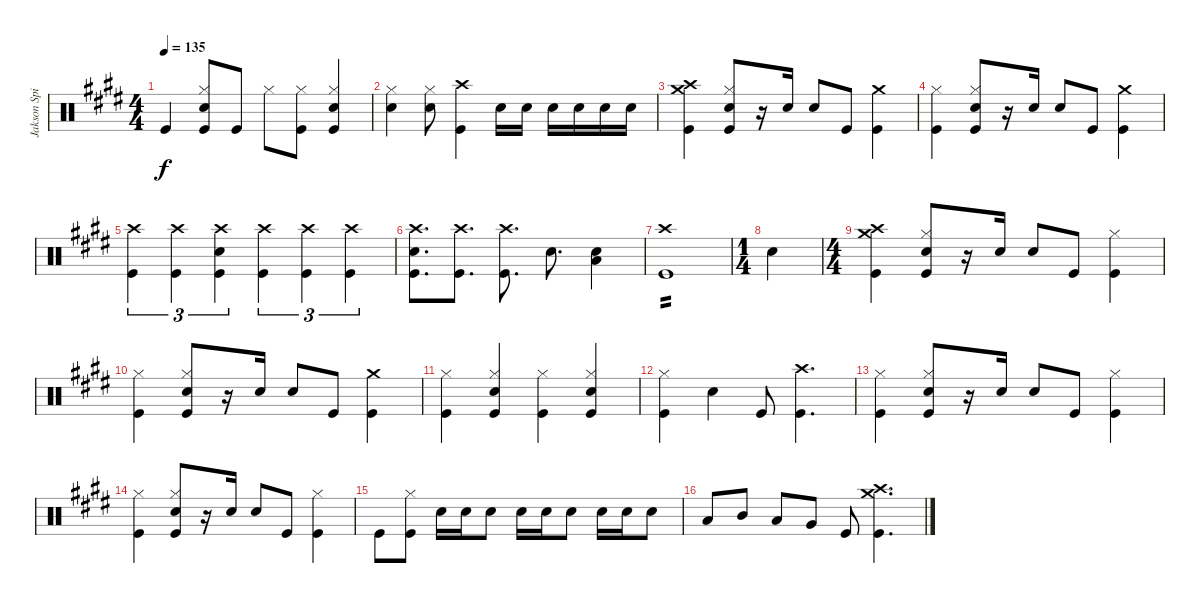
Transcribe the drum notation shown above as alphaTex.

\track ("Jakson Spires Drums" "Jakson Spi") {instrument percussion}
\staff {score}
\articulation defaults
\ts (4 4)
\tempo 135
\clef neutral
\ks e "Kick (hit)".4{dy f}
("Hi-Hat (closed)" "Snare (hit) 2" "Kick (hit)").8 "Kick (hit)".8 "Hi-Hat (closed)".8 ("Hi-Hat (closed)" "Kick (hit)").8 ("Hi-Hat (closed)" "Snare (hit) 2" "Kick (hit)").4 |
("Hi-Hat (closed)" "Snare (hit) 2").4 ("Hi-Hat (closed)" "Snare (hit) 2").8 ("Crash high (hit)" "Kick (hit)").4 "Snare (hit) 2".16 "Snare (hit) 2".16 "Snare (hit) 2".16 "Snare (hit) 2".16 "Snare (hit) 2".16 "Snare (hit) 2".16 |
("Crash high (hit)" "Crash medium (hit)" "Kick (hit)").4 ("Hi-Hat (closed)" "Snare (hit) 2" "Kick (hit)").8 r.16 "Snare (hit) 2".16 "Snare (hit) 2".8 "Kick (hit)".8 ("Crash medium (hit)" "Kick (hit)").4 |
("Hi-Hat (closed)" "Kick (hit)").4 ("Hi-Hat (closed)" "Snare (hit) 2" "Kick (hit)").8 r.16 "Snare (hit) 2".16 "Snare (hit) 2".8 "Kick (hit)".8 ("Crash medium (hit)" "Kick (hit)").4 |
("Crash high (hit)" "Kick (hit)").4{tu (3 2)} ("Crash high (hit)" "Kick (hit)").4{tu (3 2)} ("Crash high (hit)" "Snare (hit) 2" "Kick (hit)").4{tu (3 2)} ("Crash high (hit)" "Kick (hit)").4{tu (3 2)} ("Crash high (hit)" "Kick (hit)").4{tu (3 2)} ("Crash high (hit)" "Kick (hit)").4{tu (3 2)} |
("Crash high (hit)" "Snare (hit) 2" "Kick (hit)").8{d} ("Crash high (hit)" "Kick (hit)").8{d} ("Crash high (hit)" "Kick (hit)").8{d} "Snare (hit) 2".8{d} ("Low Tom (hit)" "Snare (hit) 2").4 |
("Crash high (hit)" "Kick (hit)").1{tp 2} |
\ts (1 4)
"Snare (hit) 2".4 |
\ts (4 4)
("Crash high (hit)" "Crash medium (hit)" "Kick (hit)").4 ("Hi-Hat (closed)" "Snare (hit) 2" "Kick (hit)").8 r.16 "Snare (hit) 2".16 "Snare (hit) 2".8 "Kick (hit)".8 ("Hi-Hat (closed)" "Kick (hit)").4 |
("Hi-Hat (closed)" "Kick (hit)").4 ("Hi-Hat (closed)" "Snare (hit) 2" "Kick (hit)").8 r.16 "Snare (hit) 2".16 "Snare (hit) 2".8 "Kick (hit)".8 ("Crash medium (hit)" "Kick (hit)").4 |
("Hi-Hat (closed)" "Kick (hit)").4 ("Hi-Hat (closed)" "Snare (hit) 2" "Kick (hit)").4 ("Hi-Hat (closed)" "Kick (hit)").4 ("Hi-Hat (closed)" "Snare (hit) 2" "Kick (hit)").4 |
("Hi-Hat (closed)" "Kick (hit)").4 "Snare (hit) 2".4 "Kick (hit)".8 ("Crash high (hit)" "Kick (hit)").4{d} |
("Hi-Hat (closed)" "Kick (hit)").4 ("Hi-Hat (closed)" "Snare (hit) 2" "Kick (hit)").8 r.16 "Snare (hit) 2".16 "Snare (hit) 2".8 "Kick (hit)".8 ("Hi-Hat (closed)" "Kick (hit)").4 |
("Hi-Hat (closed)" "Kick (hit)").4 ("Hi-Hat (closed)" "Snare (hit) 2" "Kick (hit)").8 r.16 "Snare (hit) 2".16 "Snare (hit) 2".8 "Kick (hit)".8 ("Hi-Hat (closed)" "Kick (hit)").4 |
"Kick (hit)".8 ("Hi-Hat (closed)" "Kick (hit)").8 "Snare (hit) 2".16 "Snare (hit) 2".16 "Snare (hit) 2".8 "Snare (hit) 2".16 "Snare (hit) 2".16 "Snare (hit) 2".8 "Snare (hit) 2".16 "Snare (hit) 2".16 "Snare (hit) 2".8 |
"Low Tom (hit)".8 "Mid Tom (hit)".8 "Low Tom (hit)".8 "Very Low Tom (hit)".8 "Kick (hit)".8 ("Crash high (hit)" "Crash medium (hit)" "Kick (hit)").4{d}
